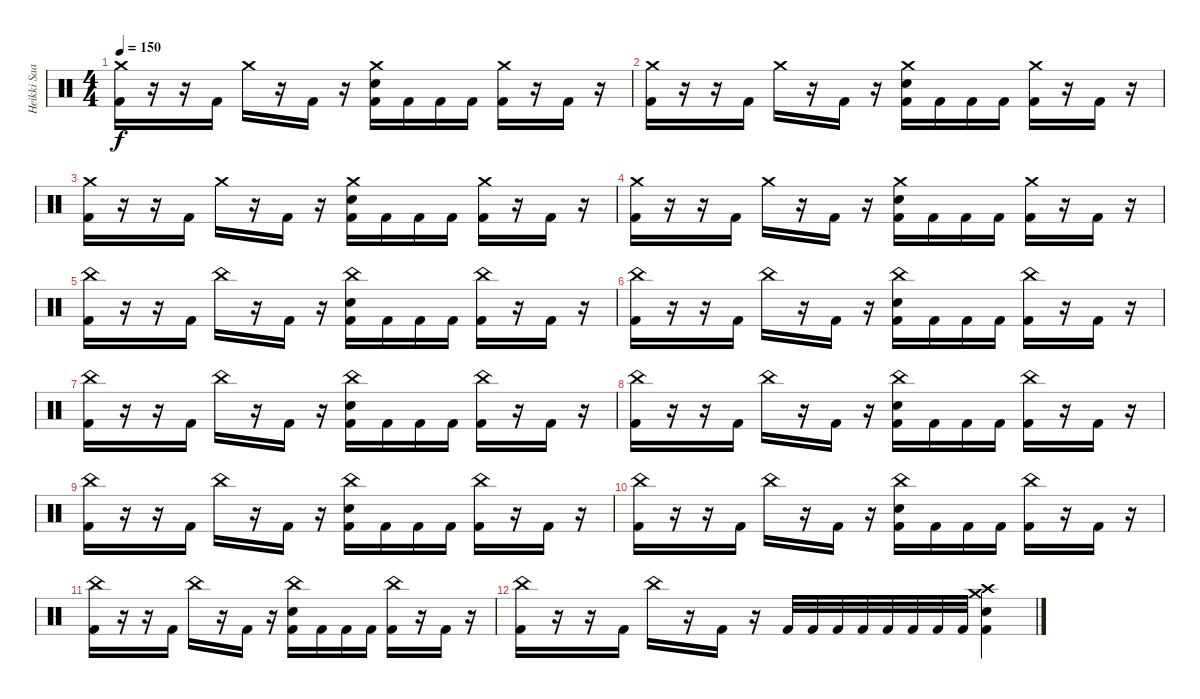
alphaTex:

\track ("Heikki Saari" "Heikki Saa") {instrument percussion}
\staff {score}
\articulation defaults
\ts (4 4)
\tempo 150
\clef neutral
\ks c
("Crash medium (hit)" "Kick (hit) 2").16{dy f} r.16 r.16 "Kick (hit) 2".16 "Crash medium (hit)".16 r.16 "Kick (hit) 2".16 r.16 ("Crash medium (hit)" "Electric Snare (hit)" "Kick (hit) 2").16 "Kick (hit) 2".16 "Kick (hit) 2".16 "Kick (hit) 2".16 ("Crash medium (hit)" "Kick (hit) 2").16 r.16 "Kick (hit) 2".16 r.16 |
("Crash medium (hit)" "Kick (hit) 2").16 r.16 r.16 "Kick (hit) 2".16 "Crash medium (hit)".16 r.16 "Kick (hit) 2".16 r.16 ("Crash medium (hit)" "Electric Snare (hit)" "Kick (hit) 2").16 "Kick (hit) 2".16 "Kick (hit) 2".16 "Kick (hit) 2".16 ("Crash medium (hit)" "Kick (hit) 2").16 r.16 "Kick (hit) 2".16 r.16 |
("Crash medium (hit)" "Kick (hit) 2").16 r.16 r.16 "Kick (hit) 2".16 "Crash medium (hit)".16 r.16 "Kick (hit) 2".16 r.16 ("Crash medium (hit)" "Electric Snare (hit)" "Kick (hit) 2").16 "Kick (hit) 2".16 "Kick (hit) 2".16 "Kick (hit) 2".16 ("Crash medium (hit)" "Kick (hit) 2").16 r.16 "Kick (hit) 2".16 r.16 |
("Crash medium (hit)" "Kick (hit) 2").16 r.16 r.16 "Kick (hit) 2".16 "Crash medium (hit)".16 r.16 "Kick (hit) 2".16 r.16 ("Crash medium (hit)" "Electric Snare (hit)" "Kick (hit) 2").16 "Kick (hit) 2".16 "Kick (hit) 2".16 "Kick (hit) 2".16 ("Crash medium (hit)" "Kick (hit) 2").16 r.16 "Kick (hit) 2".16 r.16 |
("China (hit)" "Kick (hit) 2").16 r.16 r.16 "Kick (hit) 2".16 "China (hit)".16 r.16 "Kick (hit) 2".16 r.16 ("China (hit)" "Electric Snare (hit)" "Kick (hit) 2").16 "Kick (hit) 2".16 "Kick (hit) 2".16 "Kick (hit) 2".16 ("China (hit)" "Kick (hit) 2").16 r.16 "Kick (hit) 2".16 r.16 |
("China (hit)" "Kick (hit) 2").16 r.16 r.16 "Kick (hit) 2".16 "China (hit)".16 r.16 "Kick (hit) 2".16 r.16 ("China (hit)" "Electric Snare (hit)" "Kick (hit) 2").16 "Kick (hit) 2".16 "Kick (hit) 2".16 "Kick (hit) 2".16 ("China (hit)" "Kick (hit) 2").16 r.16 "Kick (hit) 2".16 r.16 |
("China (hit)" "Kick (hit) 2").16 r.16 r.16 "Kick (hit) 2".16 "China (hit)".16 r.16 "Kick (hit) 2".16 r.16 ("China (hit)" "Electric Snare (hit)" "Kick (hit) 2").16 "Kick (hit) 2".16 "Kick (hit) 2".16 "Kick (hit) 2".16 ("China (hit)" "Kick (hit) 2").16 r.16 "Kick (hit) 2".16 r.16 |
("China (hit)" "Kick (hit) 2").16 r.16 r.16 "Kick (hit) 2".16 "China (hit)".16 r.16 "Kick (hit) 2".16 r.16 ("China (hit)" "Electric Snare (hit)" "Kick (hit) 2").16 "Kick (hit) 2".16 "Kick (hit) 2".16 "Kick (hit) 2".16 ("China (hit)" "Kick (hit) 2").16 r.16 "Kick (hit) 2".16 r.16 |
("China (hit)" "Kick (hit) 2").16 r.16 r.16 "Kick (hit) 2".16 "China (hit)".16 r.16 "Kick (hit) 2".16 r.16 ("China (hit)" "Electric Snare (hit)" "Kick (hit) 2").16 "Kick (hit) 2".16 "Kick (hit) 2".16 "Kick (hit) 2".16 ("China (hit)" "Kick (hit) 2").16 r.16 "Kick (hit) 2".16 r.16 |
("China (hit)" "Kick (hit) 2").16 r.16 r.16 "Kick (hit) 2".16 "China (hit)".16 r.16 "Kick (hit) 2".16 r.16 ("China (hit)" "Electric Snare (hit)" "Kick (hit) 2").16 "Kick (hit) 2".16 "Kick (hit) 2".16 "Kick (hit) 2".16 ("China (hit)" "Kick (hit) 2").16 r.16 "Kick (hit) 2".16 r.16 |
("China (hit)" "Kick (hit) 2").16 r.16 r.16 "Kick (hit) 2".16 "China (hit)".16 r.16 "Kick (hit) 2".16 r.16 ("China (hit)" "Electric Snare (hit)" "Kick (hit) 2").16 "Kick (hit) 2".16 "Kick (hit) 2".16 "Kick (hit) 2".16 ("China (hit)" "Kick (hit) 2").16 r.16 "Kick (hit) 2".16 r.16 |
("China (hit)" "Kick (hit) 2").16 r.16 r.16 "Kick (hit) 2".16 "China (hit)".16 r.16 "Kick (hit) 2".16 r.16 "Kick (hit) 2".32 "Kick (hit) 2".32 "Kick (hit) 2".32 "Kick (hit) 2".32 "Kick (hit) 2".32 "Kick (hit) 2".32 "Kick (hit) 2".32 "Kick (hit) 2".32 ("Electric Snare (hit)" "Crash medium (hit)" "Kick (hit) 2" "Crash high (hit)").4
